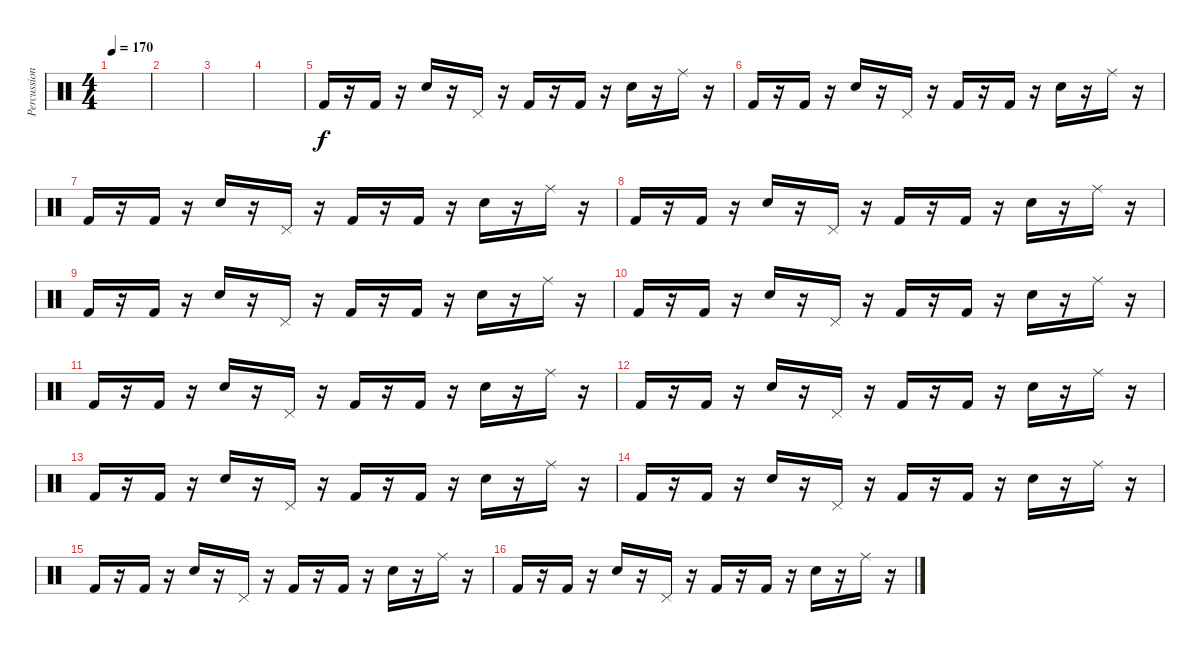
\track ("Percussion" "Percussion") {instrument percussion}
\staff {score}
\articulation defaults
\ts (4 4)
\tempo 170
\clef neutral
\ks c
|
|
|
|
"Kick (hit) 2".16 r.16 "Kick (hit) 2".16 r.16 "Snare (hit) 2".16 r.16 "Pedal Hi-Hat (hit)".16 r.16 "Kick (hit) 2".16 r.16 "Kick (hit) 2".16 r.16 "Snare (hit) 2".16 r.16 "Ride (middle)".16 r.16 |
"Kick (hit) 2".16 r.16 "Kick (hit) 2".16 r.16 "Snare (hit) 2".16 r.16 "Pedal Hi-Hat (hit)".16 r.16 "Kick (hit) 2".16 r.16 "Kick (hit) 2".16 r.16 "Snare (hit) 2".16 r.16 "Ride (middle)".16 r.16 |
"Kick (hit) 2".16 r.16 "Kick (hit) 2".16 r.16 "Snare (hit) 2".16 r.16 "Pedal Hi-Hat (hit)".16 r.16 "Kick (hit) 2".16 r.16 "Kick (hit) 2".16 r.16 "Snare (hit) 2".16 r.16 "Ride (middle)".16 r.16 |
"Kick (hit) 2".16 r.16 "Kick (hit) 2".16 r.16 "Snare (hit) 2".16 r.16 "Pedal Hi-Hat (hit)".16 r.16 "Kick (hit) 2".16 r.16 "Kick (hit) 2".16 r.16 "Snare (hit) 2".16 r.16 "Ride (middle)".16 r.16 |
"Kick (hit) 2".16 r.16 "Kick (hit) 2".16 r.16 "Snare (hit) 2".16 r.16 "Pedal Hi-Hat (hit)".16 r.16 "Kick (hit) 2".16 r.16 "Kick (hit) 2".16 r.16 "Snare (hit) 2".16 r.16 "Ride (middle)".16 r.16 |
"Kick (hit) 2".16 r.16 "Kick (hit) 2".16 r.16 "Snare (hit) 2".16 r.16 "Pedal Hi-Hat (hit)".16 r.16 "Kick (hit) 2".16 r.16 "Kick (hit) 2".16 r.16 "Snare (hit) 2".16 r.16 "Ride (middle)".16 r.16 |
"Kick (hit) 2".16 r.16 "Kick (hit) 2".16 r.16 "Snare (hit) 2".16 r.16 "Pedal Hi-Hat (hit)".16 r.16 "Kick (hit) 2".16 r.16 "Kick (hit) 2".16 r.16 "Snare (hit) 2".16 r.16 "Ride (middle)".16 r.16 |
"Kick (hit) 2".16 r.16 "Kick (hit) 2".16 r.16 "Snare (hit) 2".16 r.16 "Pedal Hi-Hat (hit)".16 r.16 "Kick (hit) 2".16 r.16 "Kick (hit) 2".16 r.16 "Snare (hit) 2".16 r.16 "Ride (middle)".16 r.16 |
"Kick (hit) 2".16 r.16 "Kick (hit) 2".16 r.16 "Snare (hit) 2".16 r.16 "Pedal Hi-Hat (hit)".16 r.16 "Kick (hit) 2".16 r.16 "Kick (hit) 2".16 r.16 "Snare (hit) 2".16 r.16 "Ride (middle)".16 r.16 |
"Kick (hit) 2".16 r.16 "Kick (hit) 2".16 r.16 "Snare (hit) 2".16 r.16 "Pedal Hi-Hat (hit)".16 r.16 "Kick (hit) 2".16 r.16 "Kick (hit) 2".16 r.16 "Snare (hit) 2".16 r.16 "Ride (middle)".16 r.16 |
"Kick (hit) 2".16 r.16 "Kick (hit) 2".16 r.16 "Snare (hit) 2".16 r.16 "Pedal Hi-Hat (hit)".16 r.16 "Kick (hit) 2".16 r.16 "Kick (hit) 2".16 r.16 "Snare (hit) 2".16 r.16 "Ride (middle)".16 r.16 |
"Kick (hit) 2".16 r.16 "Kick (hit) 2".16 r.16 "Snare (hit) 2".16 r.16 "Pedal Hi-Hat (hit)".16 r.16 "Kick (hit) 2".16 r.16 "Kick (hit) 2".16 r.16 "Snare (hit) 2".16 r.16 "Ride (middle)".16 r.16
